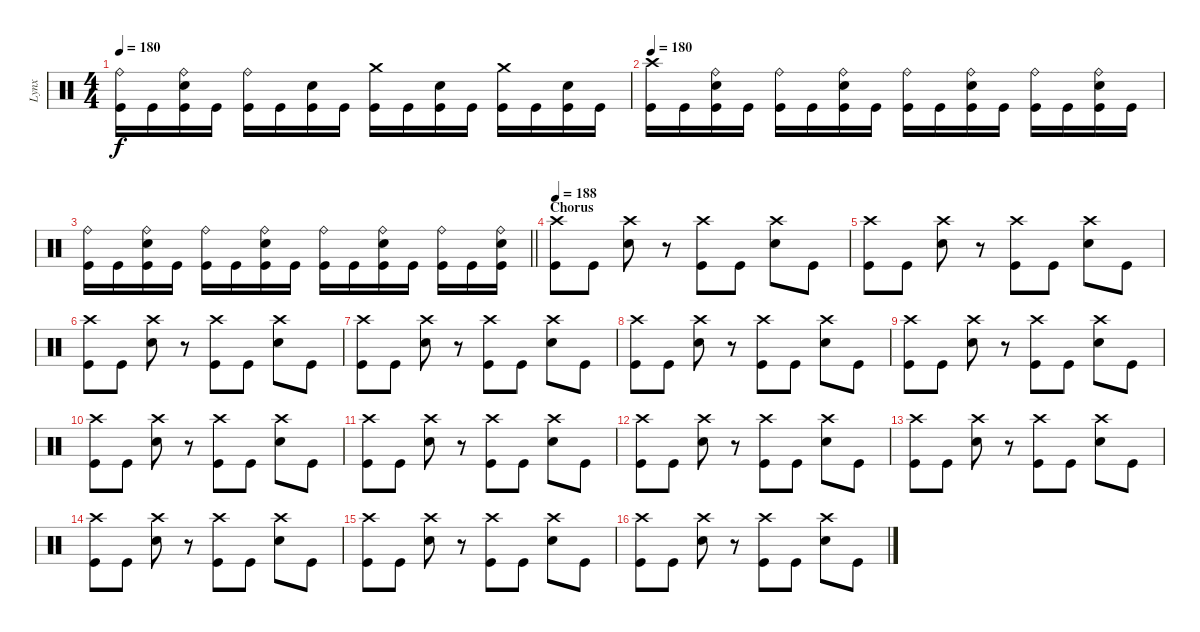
\track ("Lynx" "Lynx") {instrument percussion}
\staff {score}
\articulation defaults
\ts (4 4)
\tempo 180
\clef neutral
\ks c
("Kick (hit)" "Ride (bell)").16{dy f} "Kick (hit)".16 ("Kick (hit)" "Electric Snare (hit)" "Ride (bell)").16 "Kick (hit)".16 ("Kick (hit)" "Ride (bell)").16 "Kick (hit)".16 ("Kick (hit)" "Electric Snare (hit)").16 "Kick (hit)".16 ("Kick (hit)" "Crash medium (hit)").16 "Kick (hit)".16 ("Kick (hit)" "Electric Snare (hit)").16 "Kick (hit)".16 ("Kick (hit)" "Crash medium (hit)").16 "Kick (hit)".16 ("Kick (hit)" "Electric Snare (hit)").16 "Kick (hit)".16 |
\tempo 170
\tempo 180
("Kick (hit)" "Crash high (hit)").16 "Kick (hit)".16 ("Kick (hit)" "Electric Snare (hit)" "Ride (bell)").16 "Kick (hit)".16 ("Kick (hit)" "Ride (bell)").16 "Kick (hit)".16 ("Kick (hit)" "Electric Snare (hit)" "Ride (bell)").16 "Kick (hit)".16 ("Kick (hit)" "Ride (bell)").16 "Kick (hit)".16 ("Kick (hit)" "Electric Snare (hit)" "Ride (bell)").16 "Kick (hit)".16 ("Kick (hit)" "Ride (bell)").16 "Kick (hit)".16 ("Kick (hit)" "Electric Snare (hit)" "Ride (bell)").16 "Kick (hit)".16 |
\barLineRight lightlight
("Kick (hit)" "Ride (bell)").16 "Kick (hit)".16 ("Kick (hit)" "Electric Snare (hit)" "Ride (bell)").16 "Kick (hit)".16 ("Kick (hit)" "Ride (bell)").16 "Kick (hit)".16 ("Kick (hit)" "Electric Snare (hit)" "Ride (bell)").16 "Kick (hit)".16 ("Kick (hit)" "Ride (bell)").16 "Kick (hit)".16 ("Kick (hit)" "Electric Snare (hit)" "Ride (bell)").16 "Kick (hit)".16 ("Kick (hit)" "Ride (bell)").16 "Kick (hit)".16 ("Kick (hit)" "Electric Snare (hit)" "Ride (bell)").16 |
\section ("" "Chorus")
\tempo 188
("Crash high (hit)" "Kick (hit)").8 "Kick (hit)".8 ("Crash high (hit)" "Electric Snare (hit)").8 r.8 ("Crash high (hit)" "Kick (hit)").8 "Kick (hit)".8 ("Crash high (hit)" "Electric Snare (hit)").8 "Kick (hit)".8 |
("Crash high (hit)" "Kick (hit)").8 "Kick (hit)".8 ("Crash high (hit)" "Electric Snare (hit)").8 r.8 ("Crash high (hit)" "Kick (hit)").8 "Kick (hit)".8 ("Crash high (hit)" "Electric Snare (hit)").8 "Kick (hit)".8 |
("Crash high (hit)" "Kick (hit)").8 "Kick (hit)".8 ("Crash high (hit)" "Electric Snare (hit)").8 r.8 ("Crash high (hit)" "Kick (hit)").8 "Kick (hit)".8 ("Crash high (hit)" "Electric Snare (hit)").8 "Kick (hit)".8 |
("Crash high (hit)" "Kick (hit)").8 "Kick (hit)".8 ("Crash high (hit)" "Electric Snare (hit)").8 r.8 ("Crash high (hit)" "Kick (hit)").8 "Kick (hit)".8 ("Crash high (hit)" "Electric Snare (hit)").8 "Kick (hit)".8 |
("Crash high (hit)" "Kick (hit)").8 "Kick (hit)".8 ("Crash high (hit)" "Electric Snare (hit)").8 r.8 ("Crash high (hit)" "Kick (hit)").8 "Kick (hit)".8 ("Crash high (hit)" "Electric Snare (hit)").8 "Kick (hit)".8 |
("Crash high (hit)" "Kick (hit)").8 "Kick (hit)".8 ("Crash high (hit)" "Electric Snare (hit)").8 r.8 ("Crash high (hit)" "Kick (hit)").8 "Kick (hit)".8 ("Crash high (hit)" "Electric Snare (hit)").8 "Kick (hit)".8 |
("Crash high (hit)" "Kick (hit)").8 "Kick (hit)".8 ("Crash high (hit)" "Electric Snare (hit)").8 r.8 ("Crash high (hit)" "Kick (hit)").8 "Kick (hit)".8 ("Crash high (hit)" "Electric Snare (hit)").8 "Kick (hit)".8 |
("Crash high (hit)" "Kick (hit)").8 "Kick (hit)".8 ("Crash high (hit)" "Electric Snare (hit)").8 r.8 ("Crash high (hit)" "Kick (hit)").8 "Kick (hit)".8 ("Crash high (hit)" "Electric Snare (hit)").8 "Kick (hit)".8 |
("Crash high (hit)" "Kick (hit)").8 "Kick (hit)".8 ("Crash high (hit)" "Electric Snare (hit)").8 r.8 ("Crash high (hit)" "Kick (hit)").8 "Kick (hit)".8 ("Crash high (hit)" "Electric Snare (hit)").8 "Kick (hit)".8 |
("Crash high (hit)" "Kick (hit)").8 "Kick (hit)".8 ("Crash high (hit)" "Electric Snare (hit)").8 r.8 ("Crash high (hit)" "Kick (hit)").8 "Kick (hit)".8 ("Crash high (hit)" "Electric Snare (hit)").8 "Kick (hit)".8 |
("Crash high (hit)" "Kick (hit)").8 "Kick (hit)".8 ("Crash high (hit)" "Electric Snare (hit)").8 r.8 ("Crash high (hit)" "Kick (hit)").8 "Kick (hit)".8 ("Crash high (hit)" "Electric Snare (hit)").8 "Kick (hit)".8 |
("Crash high (hit)" "Kick (hit)").8 "Kick (hit)".8 ("Crash high (hit)" "Electric Snare (hit)").8 r.8 ("Crash high (hit)" "Kick (hit)").8 "Kick (hit)".8 ("Crash high (hit)" "Electric Snare (hit)").8 "Kick (hit)".8 |
("Crash high (hit)" "Kick (hit)").8 "Kick (hit)".8 ("Crash high (hit)" "Electric Snare (hit)").8 r.8 ("Crash high (hit)" "Kick (hit)").8 "Kick (hit)".8 ("Crash high (hit)" "Electric Snare (hit)").8 "Kick (hit)".8
